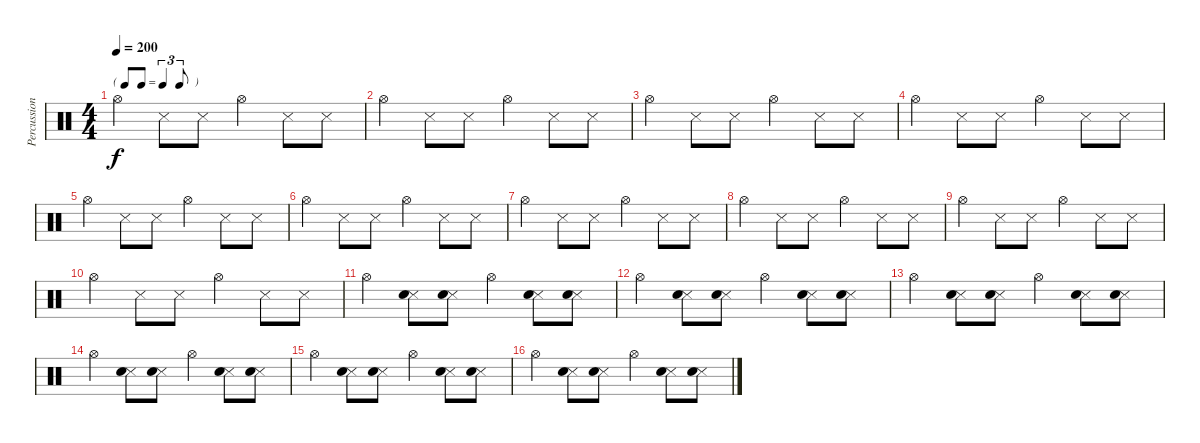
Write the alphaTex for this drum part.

\track ("Percussion" "Percussion") {instrument percussion}
\staff {score}
\articulation defaults
\ts (4 4)
\tf triplet8th
\tempo 200
\clef neutral
\ks c "Hi-Hat (open)".4{dy f} "Snare (side stick) 3".8 "Snare (side stick) 3".8 "Hi-Hat (open)".4 "Snare (side stick) 3".8 "Snare (side stick) 3".8
|
"Hi-Hat (open)".4 "Snare (side stick) 3".8 "Snare (side stick) 3".8 "Hi-Hat (open)".4 "Snare (side stick) 3".8 "Snare (side stick) 3".8 |
"Hi-Hat (open)".4 "Snare (side stick) 3".8 "Snare (side stick) 3".8 "Hi-Hat (open)".4 "Snare (side stick) 3".8 "Snare (side stick) 3".8 |
"Hi-Hat (open)".4 "Snare (side stick) 3".8 "Snare (side stick) 3".8 "Hi-Hat (open)".4 "Snare (side stick) 3".8 "Snare (side stick) 3".8 |
"Hi-Hat (open)".4 "Snare (side stick) 3".8 "Snare (side stick) 3".8 "Hi-Hat (open)".4 "Snare (side stick) 3".8 "Snare (side stick) 3".8 |
"Hi-Hat (open)".4 "Snare (side stick) 3".8 "Snare (side stick) 3".8 "Hi-Hat (open)".4 "Snare (side stick) 3".8 "Snare (side stick) 3".8 |
"Hi-Hat (open)".4 "Snare (side stick) 3".8 "Snare (side stick) 3".8 "Hi-Hat (open)".4 "Snare (side stick) 3".8 "Snare (side stick) 3".8 |
"Hi-Hat (open)".4 "Snare (side stick) 3".8 "Snare (side stick) 3".8 "Hi-Hat (open)".4 "Snare (side stick) 3".8 "Snare (side stick) 3".8 |
"Hi-Hat (open)".4 "Snare (side stick) 3".8 "Snare (side stick) 3".8 "Hi-Hat (open)".4 "Snare (side stick) 3".8 "Snare (side stick) 3".8 |
"Hi-Hat (open)".4 "Snare (side stick) 3".8 "Snare (side stick) 3".8 "Hi-Hat (open)".4 "Snare (side stick) 3".8 "Snare (side stick) 3".8 |
"Hi-Hat (open)".4 ("Snare (side stick) 3" "Hand Clap (hit)").8 ("Snare (side stick) 3" "Hand Clap (hit)").8 "Hi-Hat (open)".4 ("Snare (side stick) 3" "Hand Clap (hit)").8 ("Snare (side stick) 3" "Hand Clap (hit)").8 |
"Hi-Hat (open)".4 ("Snare (side stick) 3" "Hand Clap (hit)").8 ("Snare (side stick) 3" "Hand Clap (hit)").8 "Hi-Hat (open)".4 ("Snare (side stick) 3" "Hand Clap (hit)").8 ("Snare (side stick) 3" "Hand Clap (hit)").8 |
"Hi-Hat (open)".4 ("Snare (side stick) 3" "Hand Clap (hit)").8 ("Snare (side stick) 3" "Hand Clap (hit)").8 "Hi-Hat (open)".4 ("Snare (side stick) 3" "Hand Clap (hit)").8 ("Snare (side stick) 3" "Hand Clap (hit)").8 |
"Hi-Hat (open)".4 ("Snare (side stick) 3" "Hand Clap (hit)").8 ("Snare (side stick) 3" "Hand Clap (hit)").8 "Hi-Hat (open)".4 ("Snare (side stick) 3" "Hand Clap (hit)").8 ("Snare (side stick) 3" "Hand Clap (hit)").8 |
"Hi-Hat (open)".4 ("Snare (side stick) 3" "Hand Clap (hit)").8 ("Snare (side stick) 3" "Hand Clap (hit)").8 "Hi-Hat (open)".4 ("Snare (side stick) 3" "Hand Clap (hit)").8 ("Snare (side stick) 3" "Hand Clap (hit)").8 |
"Hi-Hat (open)".4 ("Snare (side stick) 3" "Hand Clap (hit)").8 ("Snare (side stick) 3" "Hand Clap (hit)").8 "Hi-Hat (open)".4 ("Snare (side stick) 3" "Hand Clap (hit)").8 ("Snare (side stick) 3" "Hand Clap (hit)").8
